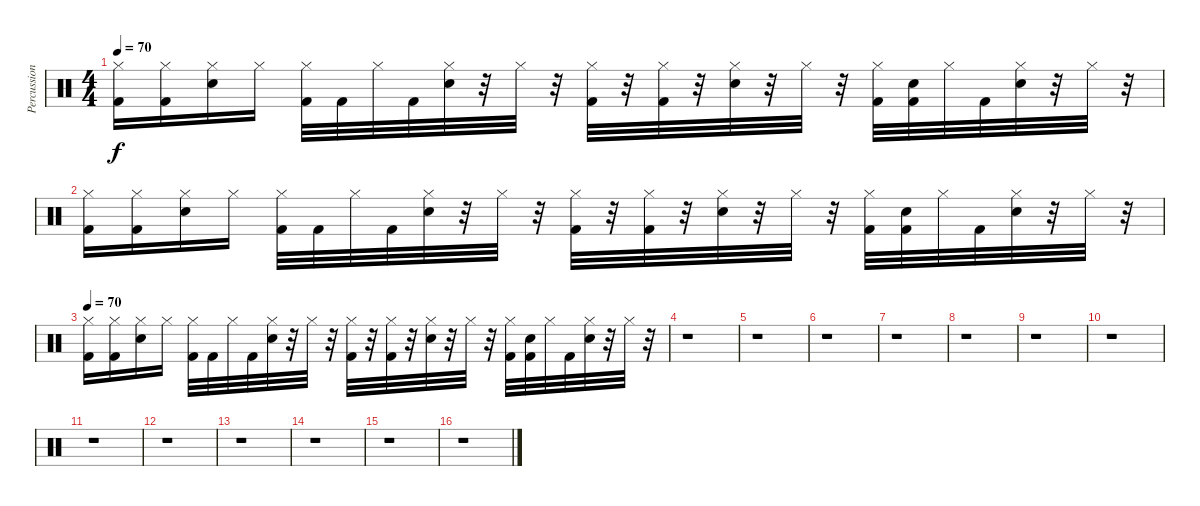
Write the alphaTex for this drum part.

\track ("Percussion" "Percussion") {instrument percussion}
\staff {score}
\articulation defaults
\ts (4 4)
\tempo 70
\clef neutral
\ks c
("Hi-Hat (closed)" "Kick (hit) 2").16{dy f} ("Hi-Hat (closed)" "Kick (hit) 2").16 ("Hi-Hat (closed)" "Snare (hit) 2").16 "Hi-Hat (closed)".16 ("Hi-Hat (closed)" "Kick (hit) 2").32 "Kick (hit) 2".32 "Hi-Hat (closed)".32 "Kick (hit) 2".32 ("Hi-Hat (closed)" "Snare (hit) 2").32 r.32 "Hi-Hat (closed)".32 r.32 ("Hi-Hat (closed)" "Kick (hit) 2").32 r.32 ("Hi-Hat (closed)" "Kick (hit) 2").32 r.32 ("Hi-Hat (closed)" "Snare (hit) 2").32 r.32 "Hi-Hat (closed)".32 r.32 ("Hi-Hat (closed)" "Kick (hit) 2").32 ("Snare (hit)" "Kick (hit) 2").32 "Hi-Hat (closed)".32 "Kick (hit) 2".32 ("Hi-Hat (closed)" "Snare (hit) 2").32 r.32 "Hi-Hat (closed)".32 r.32 |
("Hi-Hat (closed)" "Kick (hit) 2").16 ("Hi-Hat (closed)" "Kick (hit) 2").16 ("Hi-Hat (closed)" "Snare (hit) 2").16 "Hi-Hat (closed)".16 ("Hi-Hat (closed)" "Kick (hit) 2").32 "Kick (hit) 2".32 "Hi-Hat (closed)".32 "Kick (hit) 2".32 ("Hi-Hat (closed)" "Snare (hit) 2").32 r.32 "Hi-Hat (closed)".32 r.32 ("Hi-Hat (closed)" "Kick (hit) 2").32 r.32 ("Hi-Hat (closed)" "Kick (hit) 2").32 r.32 ("Hi-Hat (closed)" "Snare (hit) 2").32 r.32 "Hi-Hat (closed)".32 r.32 ("Hi-Hat (closed)" "Kick (hit) 2").32 ("Snare (hit)" "Kick (hit) 2").32 "Hi-Hat (closed)".32 "Kick (hit) 2".32 ("Hi-Hat (closed)" "Snare (hit) 2").32 r.32 "Hi-Hat (closed)".32 r.32 |
\tempo 70
("Hi-Hat (closed)" "Kick (hit) 2").16 ("Hi-Hat (closed)" "Kick (hit) 2").16 ("Hi-Hat (closed)" "Snare (hit) 2").16 "Hi-Hat (closed)".16 ("Hi-Hat (closed)" "Kick (hit) 2").32 "Kick (hit) 2".32 "Hi-Hat (closed)".32 "Kick (hit) 2".32 ("Hi-Hat (closed)" "Snare (hit) 2").32 r.32 "Hi-Hat (closed)".32 r.32 ("Hi-Hat (closed)" "Kick (hit) 2").32 r.32 ("Hi-Hat (closed)" "Kick (hit) 2").32 r.32 ("Hi-Hat (closed)" "Snare (hit) 2").32 r.32 "Hi-Hat (closed)".32 r.32 ("Hi-Hat (closed)" "Kick (hit) 2").32 ("Snare (hit)" "Kick (hit) 2").32 "Hi-Hat (closed)".32 "Kick (hit) 2".32 ("Hi-Hat (closed)" "Snare (hit) 2").32 r.32 "Hi-Hat (closed)".32 r.32 |
r.1 |
r.1 |
r.1 |
r.1 |
r.1 |
r.1 |
r.1 |
r.1 |
r.1 |
r.1 |
r.1 |
r.1 |
r.1
